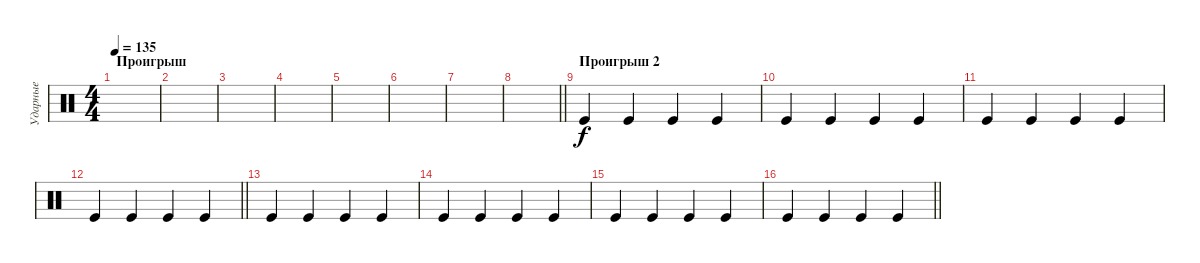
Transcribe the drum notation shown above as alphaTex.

\track ("Ударные" "Ударные") {instrument percussion}
\staff {score}
\articulation defaults
\ts (4 4)
\section ("" "Проигрыш")
\tempo 135
\clef neutral
\ks c
|
|
|
|
|
|
|
\barLineRight lightlight
|
\section ("" "Проигрыш 2")
"Kick (hit)".4 "Kick (hit)".4 "Kick (hit)".4 "Kick (hit)".4 |
"Kick (hit)".4 "Kick (hit)".4 "Kick (hit)".4 "Kick (hit)".4 |
"Kick (hit)".4 "Kick (hit)".4 "Kick (hit)".4 "Kick (hit)".4 |
\barLineRight lightlight "Kick (hit)".4 "Kick (hit)".4 "Kick (hit)".4 "Kick (hit)".4
|
"Kick (hit)".4 "Kick (hit)".4 "Kick (hit)".4 "Kick (hit)".4 |
"Kick (hit)".4 "Kick (hit)".4 "Kick (hit)".4 "Kick (hit)".4 |
"Kick (hit)".4 "Kick (hit)".4 "Kick (hit)".4 "Kick (hit)".4 |
\barLineRight lightlight "Kick (hit)".4 "Kick (hit)".4 "Kick (hit)".4 "Kick (hit)".4
